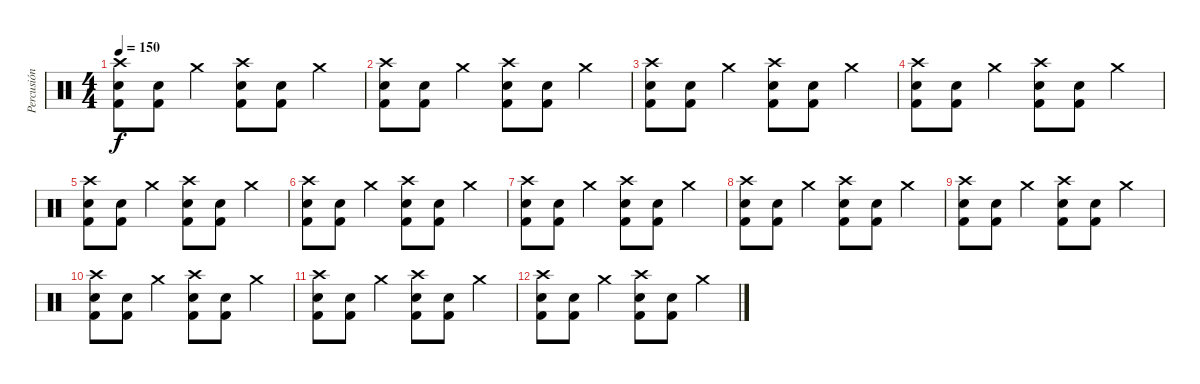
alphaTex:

\track ("Percusión" "Percusión") {instrument percussion}
\staff {score}
\articulation defaults
\ts (4 4)
\tempo 150
\clef neutral
\ks c
("Crash high (hit)" "Kick (hit) 2" "Electric Snare (hit)").8{dy f} ("Kick (hit) 2" "Electric Snare (hit)").8 "Crash medium (hit)".4 ("Crash high (hit)" "Kick (hit) 2" "Electric Snare (hit)").8 ("Kick (hit) 2" "Electric Snare (hit)").8 "Crash medium (hit)".4 |
("Crash high (hit)" "Kick (hit) 2" "Electric Snare (hit)").8 ("Kick (hit) 2" "Electric Snare (hit)").8 "Crash medium (hit)".4 ("Crash high (hit)" "Kick (hit) 2" "Electric Snare (hit)").8 ("Kick (hit) 2" "Electric Snare (hit)").8 "Crash medium (hit)".4 |
("Crash high (hit)" "Kick (hit) 2" "Electric Snare (hit)").8 ("Kick (hit) 2" "Electric Snare (hit)").8 "Crash medium (hit)".4 ("Crash high (hit)" "Kick (hit) 2" "Electric Snare (hit)").8 ("Kick (hit) 2" "Electric Snare (hit)").8 "Crash medium (hit)".4 |
("Crash high (hit)" "Kick (hit) 2" "Electric Snare (hit)").8 ("Kick (hit) 2" "Electric Snare (hit)").8 "Crash medium (hit)".4 ("Crash high (hit)" "Kick (hit) 2" "Electric Snare (hit)").8 ("Kick (hit) 2" "Electric Snare (hit)").8 "Crash medium (hit)".4 |
("Crash high (hit)" "Kick (hit) 2" "Electric Snare (hit)").8 ("Kick (hit) 2" "Electric Snare (hit)").8 "Crash medium (hit)".4 ("Crash high (hit)" "Kick (hit) 2" "Electric Snare (hit)").8 ("Kick (hit) 2" "Electric Snare (hit)").8 "Crash medium (hit)".4 |
("Crash high (hit)" "Kick (hit) 2" "Electric Snare (hit)").8 ("Kick (hit) 2" "Electric Snare (hit)").8 "Crash medium (hit)".4 ("Crash high (hit)" "Kick (hit) 2" "Electric Snare (hit)").8 ("Kick (hit) 2" "Electric Snare (hit)").8 "Crash medium (hit)".4 |
("Crash high (hit)" "Kick (hit) 2" "Electric Snare (hit)").8 ("Kick (hit) 2" "Electric Snare (hit)").8 "Crash medium (hit)".4 ("Crash high (hit)" "Kick (hit) 2" "Electric Snare (hit)").8 ("Kick (hit) 2" "Electric Snare (hit)").8 "Crash medium (hit)".4 |
("Crash high (hit)" "Kick (hit) 2" "Electric Snare (hit)").8 ("Kick (hit) 2" "Electric Snare (hit)").8 "Crash medium (hit)".4 ("Crash high (hit)" "Kick (hit) 2" "Electric Snare (hit)").8 ("Kick (hit) 2" "Electric Snare (hit)").8 "Crash medium (hit)".4 |
("Crash high (hit)" "Kick (hit) 2" "Electric Snare (hit)").8 ("Kick (hit) 2" "Electric Snare (hit)").8 "Crash medium (hit)".4 ("Crash high (hit)" "Kick (hit) 2" "Electric Snare (hit)").8 ("Kick (hit) 2" "Electric Snare (hit)").8 "Crash medium (hit)".4 |
("Crash high (hit)" "Kick (hit) 2" "Electric Snare (hit)").8 ("Kick (hit) 2" "Electric Snare (hit)").8 "Crash medium (hit)".4 ("Crash high (hit)" "Kick (hit) 2" "Electric Snare (hit)").8 ("Kick (hit) 2" "Electric Snare (hit)").8 "Crash medium (hit)".4 |
("Crash high (hit)" "Kick (hit) 2" "Electric Snare (hit)").8 ("Kick (hit) 2" "Electric Snare (hit)").8 "Crash medium (hit)".4 ("Crash high (hit)" "Kick (hit) 2" "Electric Snare (hit)").8 ("Kick (hit) 2" "Electric Snare (hit)").8 "Crash medium (hit)".4 |
("Crash high (hit)" "Kick (hit) 2" "Electric Snare (hit)").8 ("Kick (hit) 2" "Electric Snare (hit)").8 "Crash medium (hit)".4 ("Crash high (hit)" "Kick (hit) 2" "Electric Snare (hit)").8 ("Kick (hit) 2" "Electric Snare (hit)").8 "Crash medium (hit)".4
